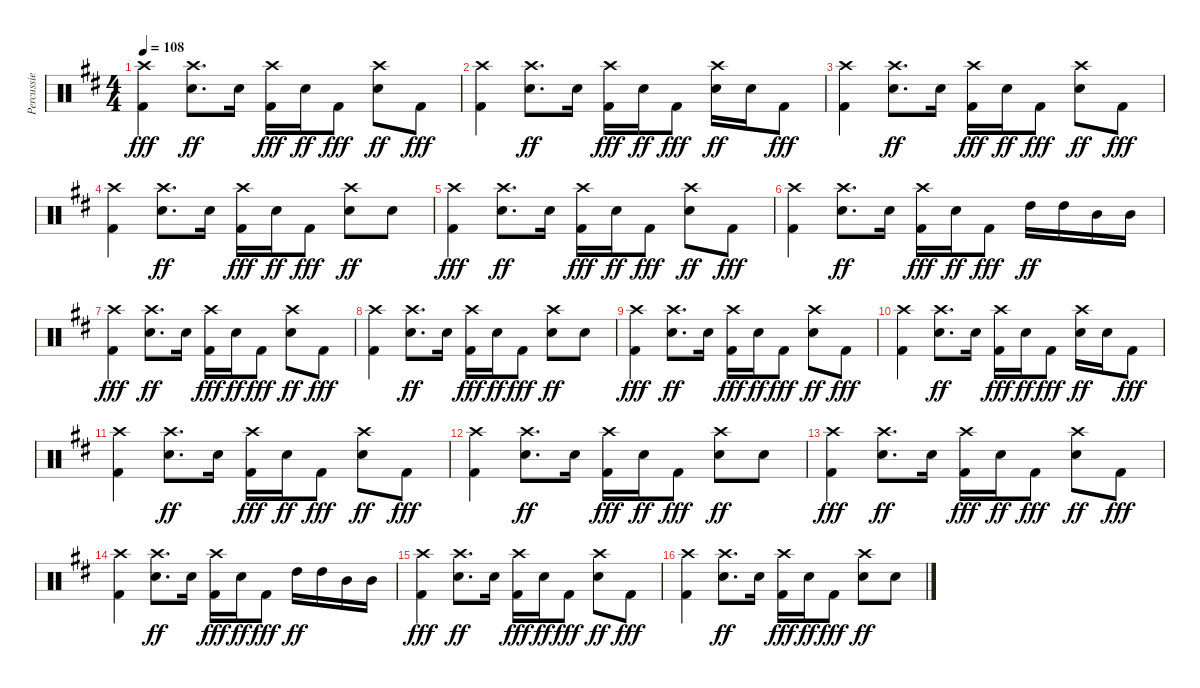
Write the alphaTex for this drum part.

\track ("Percussie" "Percussie") {instrument percussion}
\staff {score}
\articulation defaults
\ts (4 4)
\tempo 108
\clef neutral
\ks d
("Crash high (hit)" "Kick (hit) 2").4{dy fff} ("Crash high (hit)" "Snare (hit) 2").8{d dy ff} "Snare (hit) 2".16 ("Crash high (hit)" "Kick (hit) 2").16{dy fff} "Snare (hit) 2".16{dy ff} "Kick (hit) 2".8{dy fff} ("Crash high (hit)" "Snare (hit) 2").8{dy ff} "Kick (hit) 2".8{dy fff} |
("Crash high (hit)" "Kick (hit) 2").4 ("Crash high (hit)" "Snare (hit) 2").8{d dy ff} "Snare (hit) 2".16 ("Crash high (hit)" "Kick (hit) 2").16{dy fff} "Snare (hit) 2".16{dy ff} "Kick (hit) 2".8{dy fff} ("Crash high (hit)" "Snare (hit) 2").16{dy ff} "Snare (hit) 2".16 "Kick (hit) 2".8{dy fff} |
("Crash high (hit)" "Kick (hit) 2").4 ("Crash high (hit)" "Snare (hit) 2").8{d dy ff} "Snare (hit) 2".16 ("Crash high (hit)" "Kick (hit) 2").16{dy fff} "Snare (hit) 2".16{dy ff} "Kick (hit) 2".8{dy fff} ("Crash high (hit)" "Snare (hit) 2").8{dy ff} "Kick (hit) 2".8{dy fff} |
("Crash high (hit)" "Kick (hit) 2").4 ("Crash high (hit)" "Snare (hit) 2").8{d dy ff} "Snare (hit) 2".16 ("Crash high (hit)" "Kick (hit) 2").16{dy fff} "Snare (hit) 2".16{dy ff} "Kick (hit) 2".8{dy fff} ("Crash high (hit)" "Snare (hit) 2").8{dy ff} "Snare (hit) 2".8 |
("Crash high (hit)" "Kick (hit) 2").4{dy fff} ("Crash high (hit)" "Snare (hit) 2").8{d dy ff} "Snare (hit) 2".16 ("Crash high (hit)" "Kick (hit) 2").16{dy fff} "Snare (hit) 2".16{dy ff} "Kick (hit) 2".8{dy fff} ("Crash high (hit)" "Snare (hit) 2").8{dy ff} "Kick (hit) 2".8{dy fff} |
("Crash high (hit)" "Kick (hit) 2").4 ("Crash high (hit)" "Snare (hit) 2").8{d dy ff} "Snare (hit) 2".16 ("Crash high (hit)" "Kick (hit) 2").16{dy fff} "Snare (hit) 2".16{dy ff} "Kick (hit) 2".8{dy fff} "High Tom (hit)".16{dy ff} "High Tom (hit)".16 "Mid Tom (hit)".16 "Mid Tom (hit)".16 |
("Crash high (hit)" "Kick (hit) 2").4{dy fff} ("Crash high (hit)" "Snare (hit) 2").8{d dy ff} "Snare (hit) 2".16 ("Crash high (hit)" "Kick (hit) 2").16{dy fff} "Snare (hit) 2".16{dy ff} "Kick (hit) 2".8{dy fff} ("Crash high (hit)" "Snare (hit) 2").8{dy ff} "Kick (hit) 2".8{dy fff} |
("Crash high (hit)" "Kick (hit) 2").4 ("Crash high (hit)" "Snare (hit) 2").8{d dy ff} "Snare (hit) 2".16 ("Crash high (hit)" "Kick (hit) 2").16{dy fff} "Snare (hit) 2".16{dy ff} "Kick (hit) 2".8{dy fff} ("Crash high (hit)" "Snare (hit) 2").8{dy ff} "Snare (hit) 2".8 |
("Crash high (hit)" "Kick (hit) 2").4{dy fff} ("Crash high (hit)" "Snare (hit) 2").8{d dy ff} "Snare (hit) 2".16 ("Crash high (hit)" "Kick (hit) 2").16{dy fff} "Snare (hit) 2".16{dy ff} "Kick (hit) 2".8{dy fff} ("Crash high (hit)" "Snare (hit) 2").8{dy ff} "Kick (hit) 2".8{dy fff} |
("Crash high (hit)" "Kick (hit) 2").4 ("Crash high (hit)" "Snare (hit) 2").8{d dy ff} "Snare (hit) 2".16 ("Crash high (hit)" "Kick (hit) 2").16{dy fff} "Snare (hit) 2".16{dy ff} "Kick (hit) 2".8{dy fff} ("Crash high (hit)" "Snare (hit) 2").16{dy ff} "Snare (hit) 2".16 "Kick (hit) 2".8{dy fff} |
("Crash high (hit)" "Kick (hit) 2").4 ("Crash high (hit)" "Snare (hit) 2").8{d dy ff} "Snare (hit) 2".16 ("Crash high (hit)" "Kick (hit) 2").16{dy fff} "Snare (hit) 2".16{dy ff} "Kick (hit) 2".8{dy fff} ("Crash high (hit)" "Snare (hit) 2").8{dy ff} "Kick (hit) 2".8{dy fff} |
("Crash high (hit)" "Kick (hit) 2").4 ("Crash high (hit)" "Snare (hit) 2").8{d dy ff} "Snare (hit) 2".16 ("Crash high (hit)" "Kick (hit) 2").16{dy fff} "Snare (hit) 2".16{dy ff} "Kick (hit) 2".8{dy fff} ("Crash high (hit)" "Snare (hit) 2").8{dy ff} "Snare (hit) 2".8 |
("Crash high (hit)" "Kick (hit) 2").4{dy fff} ("Crash high (hit)" "Snare (hit) 2").8{d dy ff} "Snare (hit) 2".16 ("Crash high (hit)" "Kick (hit) 2").16{dy fff} "Snare (hit) 2".16{dy ff} "Kick (hit) 2".8{dy fff} ("Crash high (hit)" "Snare (hit) 2").8{dy ff} "Kick (hit) 2".8{dy fff} |
("Crash high (hit)" "Kick (hit) 2").4 ("Crash high (hit)" "Snare (hit) 2").8{d dy ff} "Snare (hit) 2".16 ("Crash high (hit)" "Kick (hit) 2").16{dy fff} "Snare (hit) 2".16{dy ff} "Kick (hit) 2".8{dy fff} "High Tom (hit)".16{dy ff} "High Tom (hit)".16 "Mid Tom (hit)".16 "Mid Tom (hit)".16 |
("Crash high (hit)" "Kick (hit) 2").4{dy fff} ("Crash high (hit)" "Snare (hit) 2").8{d dy ff} "Snare (hit) 2".16 ("Crash high (hit)" "Kick (hit) 2").16{dy fff} "Snare (hit) 2".16{dy ff} "Kick (hit) 2".8{dy fff} ("Crash high (hit)" "Snare (hit) 2").8{dy ff} "Kick (hit) 2".8{dy fff} |
("Crash high (hit)" "Kick (hit) 2").4 ("Crash high (hit)" "Snare (hit) 2").8{d dy ff} "Snare (hit) 2".16 ("Crash high (hit)" "Kick (hit) 2").16{dy fff} "Snare (hit) 2".16{dy ff} "Kick (hit) 2".8{dy fff} ("Crash high (hit)" "Snare (hit) 2").8{dy ff} "Snare (hit) 2".8
